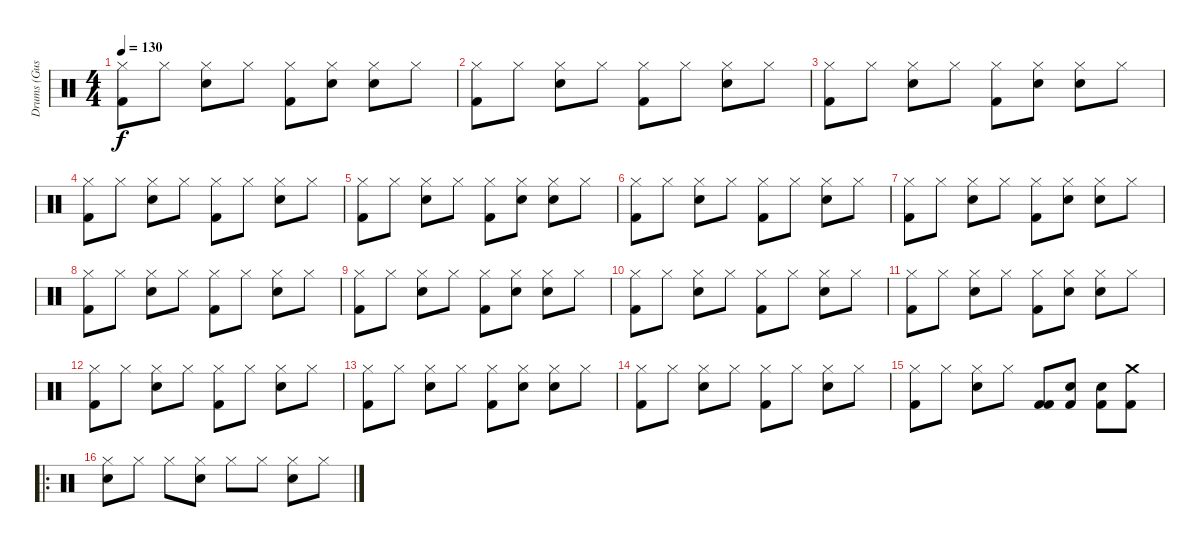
\track ("Drums (Gustav) " "Drums (Gus") {instrument percussion}
\staff {score}
\articulation defaults
\ts (4 4)
\tempo 130
\clef neutral
\ks c
("Kick (hit) 2" "Hi-Hat (closed)").8{dy f} "Hi-Hat (closed)".8 ("Snare (hit) 2" "Hi-Hat (closed)").8 "Hi-Hat (closed)".8 ("Kick (hit) 2" "Hi-Hat (closed)").8 ("Snare (hit) 2" "Hi-Hat (closed)").8 ("Snare (hit) 2" "Hi-Hat (closed)").8 "Hi-Hat (closed)".8 |
("Kick (hit) 2" "Hi-Hat (closed)").8 "Hi-Hat (closed)".8 ("Snare (hit) 2" "Hi-Hat (closed)").8 "Hi-Hat (closed)".8 ("Kick (hit) 2" "Hi-Hat (closed)").8 "Hi-Hat (closed)".8 ("Snare (hit) 2" "Hi-Hat (closed)").8 "Hi-Hat (closed)".8 |
("Kick (hit) 2" "Hi-Hat (closed)").8 "Hi-Hat (closed)".8 ("Snare (hit) 2" "Hi-Hat (closed)").8 "Hi-Hat (closed)".8 ("Kick (hit) 2" "Hi-Hat (closed)").8 ("Snare (hit) 2" "Hi-Hat (closed)").8 ("Snare (hit) 2" "Hi-Hat (closed)").8 "Hi-Hat (closed)".8 |
("Kick (hit) 2" "Hi-Hat (closed)").8 "Hi-Hat (closed)".8 ("Snare (hit) 2" "Hi-Hat (closed)").8 "Hi-Hat (closed)".8 ("Kick (hit) 2" "Hi-Hat (closed)").8 "Hi-Hat (closed)".8 ("Snare (hit) 2" "Hi-Hat (closed)").8 "Hi-Hat (closed)".8 |
("Kick (hit) 2" "Hi-Hat (closed)").8 "Hi-Hat (closed)".8 ("Snare (hit) 2" "Hi-Hat (closed)").8 "Hi-Hat (closed)".8 ("Kick (hit) 2" "Hi-Hat (closed)").8 ("Snare (hit) 2" "Hi-Hat (closed)").8 ("Snare (hit) 2" "Hi-Hat (closed)").8 "Hi-Hat (closed)".8 |
("Kick (hit) 2" "Hi-Hat (closed)").8 "Hi-Hat (closed)".8 ("Snare (hit) 2" "Hi-Hat (closed)").8 "Hi-Hat (closed)".8 ("Kick (hit) 2" "Hi-Hat (closed)").8 "Hi-Hat (closed)".8 ("Snare (hit) 2" "Hi-Hat (closed)").8 "Hi-Hat (closed)".8 |
("Kick (hit) 2" "Hi-Hat (closed)").8 "Hi-Hat (closed)".8 ("Snare (hit) 2" "Hi-Hat (closed)").8 "Hi-Hat (closed)".8 ("Kick (hit) 2" "Hi-Hat (closed)").8 ("Snare (hit) 2" "Hi-Hat (closed)").8 ("Snare (hit) 2" "Hi-Hat (closed)").8 "Hi-Hat (closed)".8 |
("Kick (hit) 2" "Hi-Hat (closed)").8 "Hi-Hat (closed)".8 ("Snare (hit) 2" "Hi-Hat (closed)").8 "Hi-Hat (closed)".8 ("Kick (hit) 2" "Hi-Hat (closed)").8 "Hi-Hat (closed)".8 ("Snare (hit) 2" "Hi-Hat (closed)").8 "Hi-Hat (closed)".8 |
("Kick (hit) 2" "Hi-Hat (closed)").8 "Hi-Hat (closed)".8 ("Snare (hit) 2" "Hi-Hat (closed)").8 "Hi-Hat (closed)".8 ("Kick (hit) 2" "Hi-Hat (closed)").8 ("Snare (hit) 2" "Hi-Hat (closed)").8 ("Snare (hit) 2" "Hi-Hat (closed)").8 "Hi-Hat (closed)".8 |
("Kick (hit) 2" "Hi-Hat (closed)").8 "Hi-Hat (closed)".8 ("Snare (hit) 2" "Hi-Hat (closed)").8 "Hi-Hat (closed)".8 ("Kick (hit) 2" "Hi-Hat (closed)").8 "Hi-Hat (closed)".8 ("Snare (hit) 2" "Hi-Hat (closed)").8 "Hi-Hat (closed)".8 |
("Kick (hit) 2" "Hi-Hat (closed)").8 "Hi-Hat (closed)".8 ("Snare (hit) 2" "Hi-Hat (closed)").8 "Hi-Hat (closed)".8 ("Kick (hit) 2" "Hi-Hat (closed)").8 ("Snare (hit) 2" "Hi-Hat (closed)").8 ("Snare (hit) 2" "Hi-Hat (closed)").8 "Hi-Hat (closed)".8 |
("Kick (hit) 2" "Hi-Hat (closed)").8 "Hi-Hat (closed)".8 ("Snare (hit) 2" "Hi-Hat (closed)").8 "Hi-Hat (closed)".8 ("Kick (hit) 2" "Hi-Hat (closed)").8 "Hi-Hat (closed)".8 ("Snare (hit) 2" "Hi-Hat (closed)").8 "Hi-Hat (closed)".8 |
("Kick (hit) 2" "Hi-Hat (closed)").8 "Hi-Hat (closed)".8 ("Snare (hit) 2" "Hi-Hat (closed)").8 "Hi-Hat (closed)".8 ("Kick (hit) 2" "Hi-Hat (closed)").8 ("Snare (hit) 2" "Hi-Hat (closed)").8 ("Snare (hit) 2" "Hi-Hat (closed)").8 "Hi-Hat (closed)".8 |
("Kick (hit) 2" "Hi-Hat (closed)").8 "Hi-Hat (closed)".8 ("Snare (hit) 2" "Hi-Hat (closed)").8 "Hi-Hat (closed)".8 ("Kick (hit) 2" "Hi-Hat (closed)").8 "Hi-Hat (closed)".8 ("Snare (hit) 2" "Hi-Hat (closed)").8 "Hi-Hat (closed)".8 |
("Kick (hit) 2" "Hi-Hat (closed)").8 "Hi-Hat (closed)".8 ("Snare (hit) 2" "Hi-Hat (closed)").8 "Hi-Hat (closed)".8 ("Kick (hit) 2" "Kick (hit) 2").8 ("Snare (hit) 2" "Kick (hit) 2").8 ("Snare (hit) 2" "Kick (hit) 2").8 ("Crash medium (hit)" "Kick (hit) 2").8 |
\ro
("Snare (hit) 2" "Hi-Hat (closed)").8 "Hi-Hat (closed)".8 "Hi-Hat (closed)".8 ("Snare (hit) 2" "Hi-Hat (closed)").8 "Hi-Hat (closed)".8 "Hi-Hat (closed)".8 ("Snare (hit) 2" "Hi-Hat (closed)").8 "Hi-Hat (closed)".8
